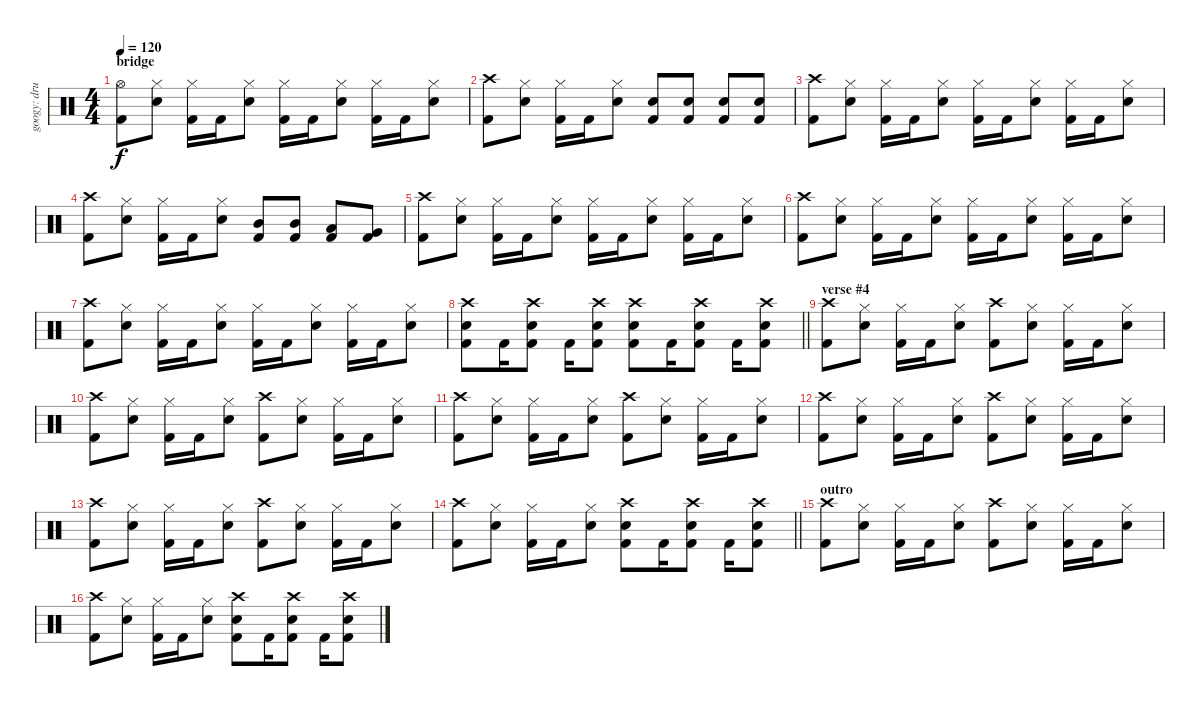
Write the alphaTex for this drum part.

\track ("googy: drums" "googy: dru") {instrument percussion}
\staff {score}
\articulation defaults
\ts (4 4)
\section ("" "bridge")
\tempo 120
\clef neutral
\ks c
("Kick (hit) 2" "Hi-Hat (open)").8{dy f} ("Hi-Hat (closed)" "Electric Snare (hit)").8 ("Hi-Hat (closed)" "Kick (hit) 2").16 "Kick (hit) 2".16 ("Hi-Hat (closed)" "Electric Snare (hit)").8 ("Hi-Hat (closed)" "Kick (hit) 2").16 "Kick (hit) 2".16 ("Hi-Hat (closed)" "Electric Snare (hit)").8 ("Hi-Hat (closed)" "Kick (hit) 2").16 "Kick (hit) 2".16 ("Hi-Hat (closed)" "Electric Snare (hit)").8 |
("Kick (hit) 2" "Crash high (hit)").8 ("Hi-Hat (closed)" "Electric Snare (hit)").8 ("Hi-Hat (closed)" "Kick (hit) 2").16 "Kick (hit) 2".16 ("Hi-Hat (closed)" "Electric Snare (hit)").8 ("Electric Snare (hit)" "Kick (hit) 2").8 ("Electric Snare (hit)" "Kick (hit) 2").8 ("Electric Snare (hit)" "Kick (hit) 2").8 ("Electric Snare (hit)" "Kick (hit) 2").8 |
("Kick (hit) 2" "Crash high (hit)").8 ("Hi-Hat (closed)" "Electric Snare (hit)").8 ("Hi-Hat (closed)" "Kick (hit) 2").16 "Kick (hit) 2".16 ("Hi-Hat (closed)" "Electric Snare (hit)").8 ("Hi-Hat (closed)" "Kick (hit) 2").16 "Kick (hit) 2".16 ("Hi-Hat (closed)" "Electric Snare (hit)").8 ("Hi-Hat (closed)" "Kick (hit) 2").16 "Kick (hit) 2".16 ("Hi-Hat (closed)" "Electric Snare (hit)").8 |
("Kick (hit) 2" "Crash high (hit)").8 ("Hi-Hat (closed)" "Electric Snare (hit)").8 ("Hi-Hat (closed)" "Kick (hit) 2").16 "Kick (hit) 2".16 ("Hi-Hat (closed)" "Electric Snare (hit)").8 ("Mid Tom (hit)" "Kick (hit) 2").8 ("Mid Tom (hit)" "Kick (hit) 2").8 ("Low Tom (hit)" "Kick (hit) 2").8 ("Very Low Tom (hit)" "Kick (hit) 2").8 |
("Kick (hit) 2" "Crash high (hit)").8 ("Hi-Hat (closed)" "Electric Snare (hit)").8 ("Hi-Hat (closed)" "Kick (hit) 2").16 "Kick (hit) 2".16 ("Hi-Hat (closed)" "Electric Snare (hit)").8 ("Hi-Hat (closed)" "Kick (hit) 2").16 "Kick (hit) 2".16 ("Hi-Hat (closed)" "Electric Snare (hit)").8 ("Hi-Hat (closed)" "Kick (hit) 2").16 "Kick (hit) 2".16 ("Hi-Hat (closed)" "Electric Snare (hit)").8 |
("Kick (hit) 2" "Crash high (hit)").8 ("Hi-Hat (closed)" "Electric Snare (hit)").8 ("Hi-Hat (closed)" "Kick (hit) 2").16 "Kick (hit) 2".16 ("Hi-Hat (closed)" "Electric Snare (hit)").8 ("Hi-Hat (closed)" "Kick (hit) 2").16 "Kick (hit) 2".16 ("Hi-Hat (closed)" "Electric Snare (hit)").8 ("Hi-Hat (closed)" "Kick (hit) 2").16 "Kick (hit) 2".16 ("Hi-Hat (closed)" "Electric Snare (hit)").8 |
("Kick (hit) 2" "Crash high (hit)").8 ("Hi-Hat (closed)" "Electric Snare (hit)").8 ("Hi-Hat (closed)" "Kick (hit) 2").16 "Kick (hit) 2".16 ("Hi-Hat (closed)" "Electric Snare (hit)").8 ("Hi-Hat (closed)" "Kick (hit) 2").16 "Kick (hit) 2".16 ("Hi-Hat (closed)" "Electric Snare (hit)").8 ("Hi-Hat (closed)" "Kick (hit) 2").16 "Kick (hit) 2".16 ("Hi-Hat (closed)" "Electric Snare (hit)").8 |
\barLineRight lightlight
("Electric Snare (hit)" "Kick (hit) 2" "Crash high (hit)").8 "Kick (hit) 2".16 ("Crash high (hit)" "Kick (hit) 2" "Electric Snare (hit)").8 "Kick (hit) 2".16 ("Crash high (hit)" "Kick (hit) 2" "Electric Snare (hit)").8 ("Electric Snare (hit)" "Kick (hit) 2" "Crash high (hit)").8 "Kick (hit) 2".16 ("Crash high (hit)" "Kick (hit) 2" "Electric Snare (hit)").8 "Kick (hit) 2".16 ("Crash high (hit)" "Kick (hit) 2" "Electric Snare (hit)").8 |
\section ("" "verse #4")
("Kick (hit) 2" "Crash high (hit)").8 ("Hi-Hat (closed)" "Electric Snare (hit)").8 ("Hi-Hat (closed)" "Kick (hit) 2").16 "Kick (hit) 2".16 ("Hi-Hat (closed)" "Electric Snare (hit)").8 ("Kick (hit) 2" "Crash high (hit)").8 ("Hi-Hat (closed)" "Electric Snare (hit)").8 ("Hi-Hat (closed)" "Kick (hit) 2").16 "Kick (hit) 2".16 ("Hi-Hat (closed)" "Electric Snare (hit)").8 |
("Kick (hit) 2" "Crash high (hit)").8 ("Hi-Hat (closed)" "Electric Snare (hit)").8 ("Hi-Hat (closed)" "Kick (hit) 2").16 "Kick (hit) 2".16 ("Hi-Hat (closed)" "Electric Snare (hit)").8 ("Kick (hit) 2" "Crash high (hit)").8 ("Hi-Hat (closed)" "Electric Snare (hit)").8 ("Hi-Hat (closed)" "Kick (hit) 2").16 "Kick (hit) 2".16 ("Hi-Hat (closed)" "Electric Snare (hit)").8 |
("Kick (hit) 2" "Crash high (hit)").8 ("Hi-Hat (closed)" "Electric Snare (hit)").8 ("Hi-Hat (closed)" "Kick (hit) 2").16 "Kick (hit) 2".16 ("Hi-Hat (closed)" "Electric Snare (hit)").8 ("Kick (hit) 2" "Crash high (hit)").8 ("Hi-Hat (closed)" "Electric Snare (hit)").8 ("Hi-Hat (closed)" "Kick (hit) 2").16 "Kick (hit) 2".16 ("Hi-Hat (closed)" "Electric Snare (hit)").8 |
("Kick (hit) 2" "Crash high (hit)").8 ("Hi-Hat (closed)" "Electric Snare (hit)").8 ("Hi-Hat (closed)" "Kick (hit) 2").16 "Kick (hit) 2".16 ("Hi-Hat (closed)" "Electric Snare (hit)").8 ("Kick (hit) 2" "Crash high (hit)").8 ("Hi-Hat (closed)" "Electric Snare (hit)").8 ("Hi-Hat (closed)" "Kick (hit) 2").16 "Kick (hit) 2".16 ("Hi-Hat (closed)" "Electric Snare (hit)").8 |
("Kick (hit) 2" "Crash high (hit)").8 ("Hi-Hat (closed)" "Electric Snare (hit)").8 ("Hi-Hat (closed)" "Kick (hit) 2").16 "Kick (hit) 2".16 ("Hi-Hat (closed)" "Electric Snare (hit)").8 ("Kick (hit) 2" "Crash high (hit)").8 ("Hi-Hat (closed)" "Electric Snare (hit)").8 ("Hi-Hat (closed)" "Kick (hit) 2").16 "Kick (hit) 2".16 ("Hi-Hat (closed)" "Electric Snare (hit)").8 |
\barLineRight lightlight
("Kick (hit) 2" "Crash high (hit)").8 ("Hi-Hat (closed)" "Electric Snare (hit)").8 ("Hi-Hat (closed)" "Kick (hit) 2").16 "Kick (hit) 2".16 ("Hi-Hat (closed)" "Electric Snare (hit)").8 ("Electric Snare (hit)" "Kick (hit) 2" "Crash high (hit)").8 "Kick (hit) 2".16 ("Crash high (hit)" "Kick (hit) 2" "Electric Snare (hit)").8 "Kick (hit) 2".16 ("Crash high (hit)" "Kick (hit) 2" "Electric Snare (hit)").8 |
\section ("" "outro")
("Kick (hit) 2" "Crash high (hit)").8 ("Hi-Hat (closed)" "Electric Snare (hit)").8 ("Hi-Hat (closed)" "Kick (hit) 2").16 "Kick (hit) 2".16 ("Hi-Hat (closed)" "Electric Snare (hit)").8 ("Kick (hit) 2" "Crash high (hit)").8 ("Hi-Hat (closed)" "Electric Snare (hit)").8 ("Hi-Hat (closed)" "Kick (hit) 2").16 "Kick (hit) 2".16 ("Hi-Hat (closed)" "Electric Snare (hit)").8 |
("Kick (hit) 2" "Crash high (hit)").8 ("Hi-Hat (closed)" "Electric Snare (hit)").8 ("Hi-Hat (closed)" "Kick (hit) 2").16 "Kick (hit) 2".16 ("Hi-Hat (closed)" "Electric Snare (hit)").8 ("Electric Snare (hit)" "Kick (hit) 2" "Crash high (hit)").8 "Kick (hit) 2".16 ("Crash high (hit)" "Kick (hit) 2" "Electric Snare (hit)").8 "Kick (hit) 2".16 ("Crash high (hit)" "Kick (hit) 2" "Electric Snare (hit)").8
